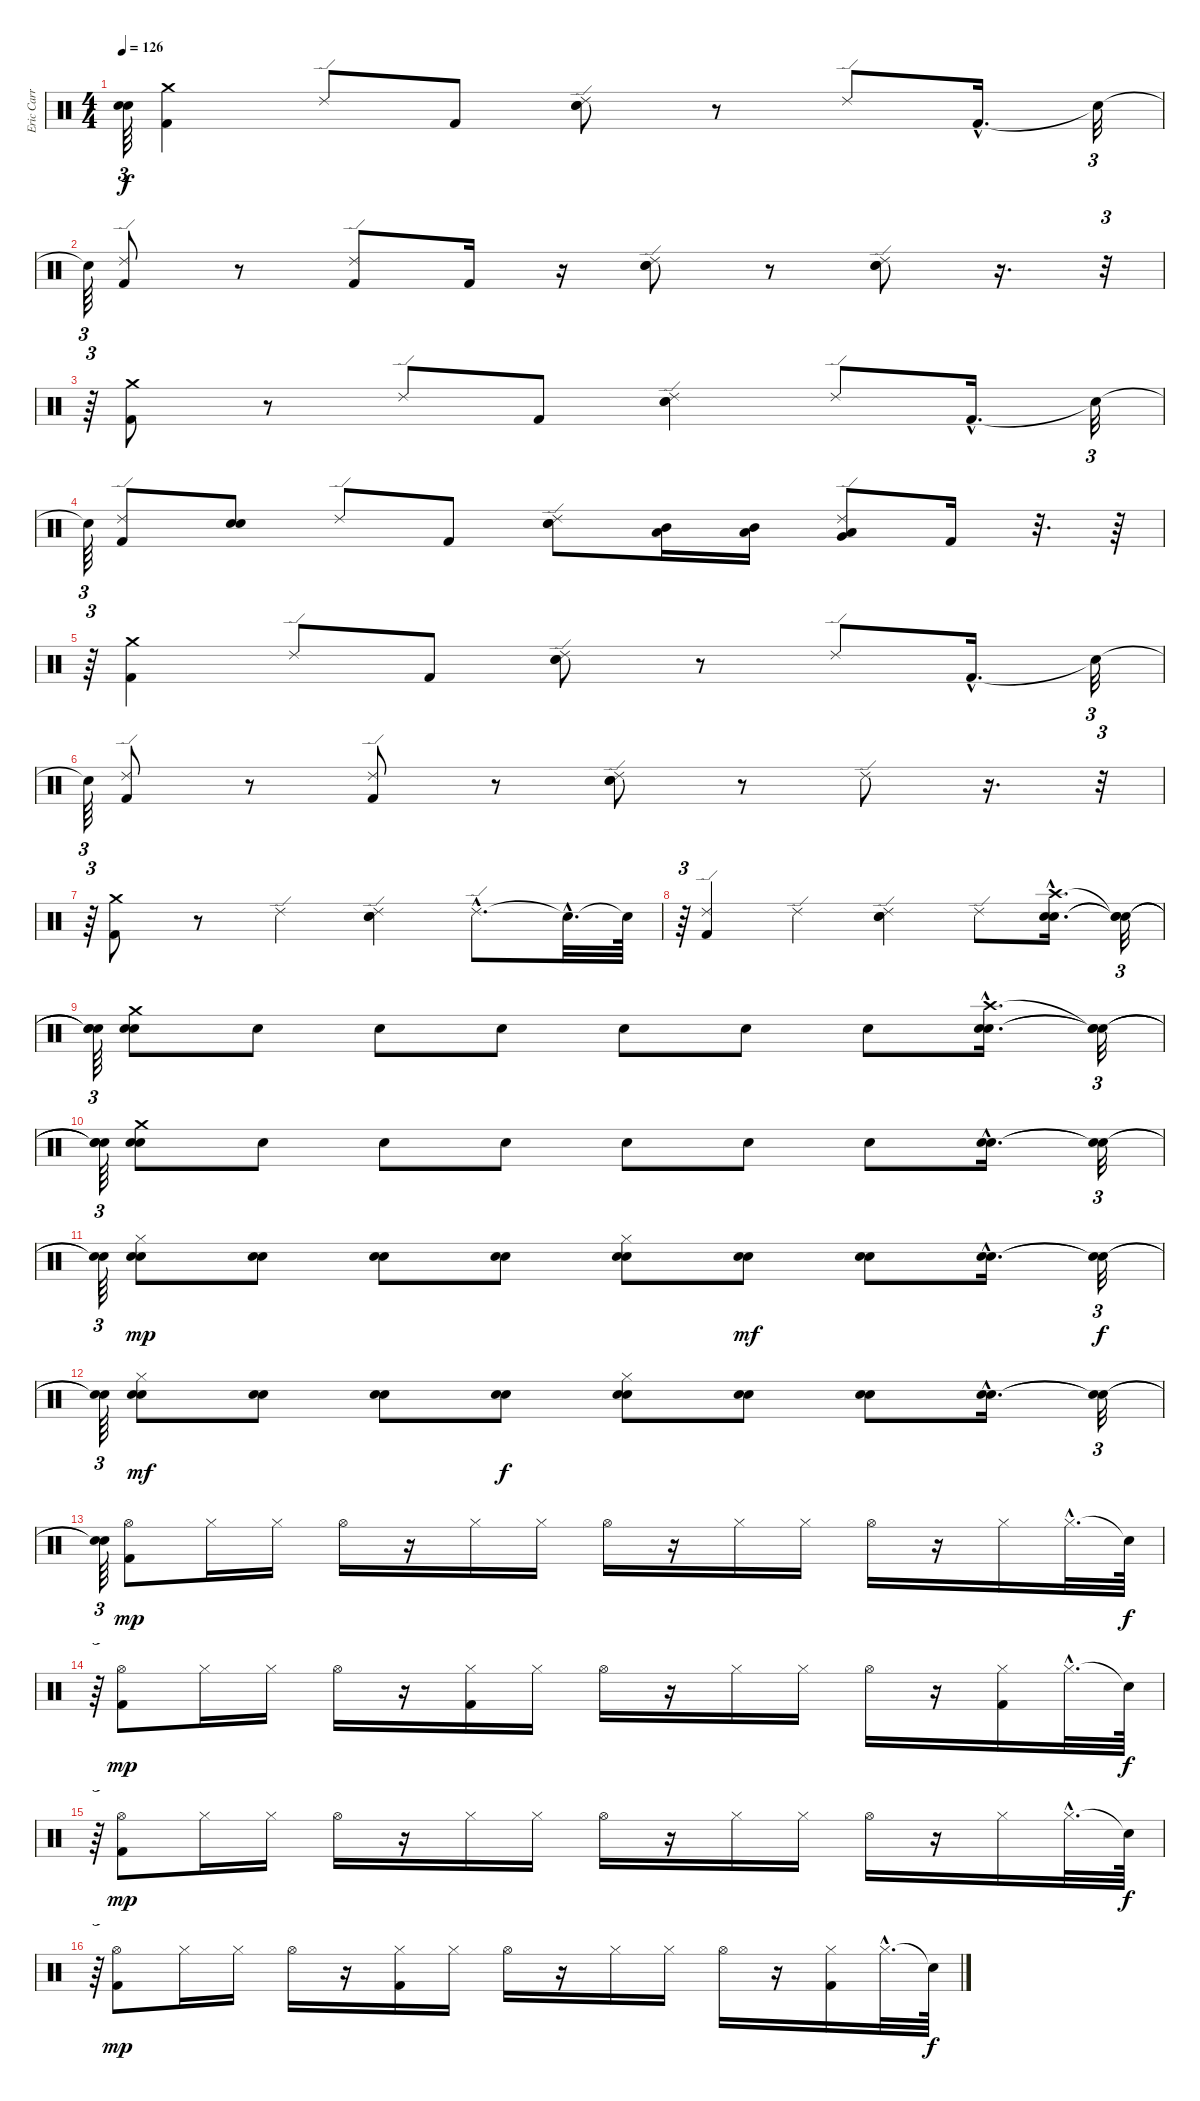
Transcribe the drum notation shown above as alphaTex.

\track ("Eric Carr" "Eric Carr") {instrument percussion}
\staff {score}
\articulation defaults
\ts (4 4)
\tempo 126
\clef neutral
\ks c
("Snare (hit)"{t} "Snare (hit)"{t}).64{tu (3 2) dy f} ("Crash medium (hit)" "Kick (hit) 2").4 "Ride (edge) 2".8 "Kick (hit) 2".8 ("Ride (edge) 2" "Snare (hit) 2" "Electric Snare (hit)").8 r.8 "Ride (edge) 2".8 "Kick (hit) 2"{hac}.16{d} "Snare (hit)"{t}.32{tu (3 2)} |
"Snare (hit)"{t}.64{tu (3 2)} ("Ride (edge) 2" "Kick (hit) 2").8 r.8 ("Ride (edge) 2" "Kick (hit) 2").8 "Kick (hit) 2".16 r.16 ("Ride (edge) 2" "Electric Snare (hit)" "Snare (hit) 2").8 r.8 ("Snare (hit) 2" "Electric Snare (hit)" "Ride (edge) 2").8 r.16{d} r.32{tu (3 2)} |
r.64{tu (3 2)} ("Crash medium (hit)" "Kick (hit) 2").8 r.8 "Ride (edge) 2".8 "Kick (hit) 2".8 ("Ride (edge) 2" "Electric Snare (hit)" "Snare (hit) 2").4 "Ride (edge) 2".8 "Kick (hit) 2"{hac}.16{d} "Snare (hit)"{t}.32{tu (3 2)} |
"Snare (hit)"{t}.64{tu (3 2)} ("Ride (edge) 2" "Kick (hit) 2").8 ("Snare (hit) 2" "Electric Snare (hit)").8 "Ride (edge) 2".8 "Kick (hit) 2".8 ("Snare (hit) 2" "Electric Snare (hit)" "Ride (edge) 2").8 ("Mid Tom (hit)" "Low Tom (hit)").16 ("Mid Tom (hit)" "Low Tom (hit)").16 ("Low Tom (hit)" "Very Low Tom (hit)" "Ride (edge) 2").8 "Kick (hit) 2".16 r.32{d} r.64 |
r.64{tu (3 2)} ("Crash medium (hit)" "Kick (hit) 2").4 "Ride (edge) 2".8 "Kick (hit) 2".8 ("Ride (edge) 2" "Snare (hit) 2" "Electric Snare (hit)").8 r.8 "Ride (edge) 2".8 "Kick (hit) 2"{hac}.16{d} "Snare (hit)"{t}.32{tu (3 2)} |
"Snare (hit)"{t}.64{tu (3 2)} ("Ride (edge) 2" "Kick (hit) 2").8 r.8 ("Ride (edge) 2" "Kick (hit) 2").8 r.8 ("Ride (edge) 2" "Electric Snare (hit)" "Snare (hit) 2").8 r.8 "Ride (edge) 2".8 r.16{d} r.32{tu (3 2)} |
r.64{tu (3 2)} ("Crash medium (hit)" "Kick (hit) 2").8 r.8 "Ride (edge) 2".4 ("Ride (edge) 2" "Electric Snare (hit)" "Snare (hit) 2").4 "Ride (edge) 2"{hac}.8{d} "Snare (hit)"{hac t}.32{d} "Snare (hit)"{t}.64 |
r.64{tu (3 2)} ("Ride (edge) 2" "Kick (hit) 2").4 "Ride (edge) 2".4 ("Ride (edge) 2" "Electric Snare (hit)" "Snare (hit) 2").4 "Ride (edge) 2".8 ("Crash high (hit)"{hac} "Snare (hit) 2"{hac} "Electric Snare (hit)"{hac}).16{d} ("Snare (hit)"{t} "Snare (hit)"{t} "Snare (hit)"{t}).32{tu (3 2)} |
("Snare (hit)"{t} "Snare (hit)"{t} "Snare (hit)"{t}).64{tu (3 2)} ("Snare (hit) 2" "Electric Snare (hit)" "Crash medium (hit)").8 "Snare (hit) 2".8 "Snare (hit) 2".8 "Snare (hit) 2".8 "Snare (hit) 2".8 "Snare (hit) 2".8 "Snare (hit) 2".8 ("Crash high (hit)"{hac} "Electric Snare (hit)"{hac} "Snare (hit) 2"{hac}).16{d} ("Snare (hit)"{t} "Snare (hit)"{t} "Snare (hit)"{t}).32{tu (3 2)} |
("Snare (hit)"{t} "Snare (hit)"{t} "Snare (hit)"{t}).64{tu (3 2)} ("Crash medium (hit)" "Electric Snare (hit)" "Snare (hit) 2").8 "Snare (hit) 2".8 "Snare (hit) 2".8 "Snare (hit) 2".8 "Snare (hit) 2".8 "Snare (hit) 2".8 "Snare (hit) 2".8 ("Electric Snare (hit)"{hac} "Snare (hit) 2"{hac}).16{d} ("Snare (hit)"{t} "Snare (hit)"{t}).32{tu (3 2)} |
("Snare (hit)"{t} "Snare (hit)"{t}).64{tu (3 2)} ("Hi-Hat (closed)" "Electric Snare (hit)" "Snare (hit) 2").8{dy mp} ("Electric Snare (hit)" "Snare (hit) 2").8 ("Electric Snare (hit)" "Snare (hit) 2").8 ("Electric Snare (hit)" "Snare (hit) 2").8 ("Hi-Hat (closed)" "Electric Snare (hit)" "Snare (hit) 2").8 ("Electric Snare (hit)" "Snare (hit) 2").8{dy mf} ("Electric Snare (hit)" "Snare (hit) 2").8 ("Electric Snare (hit)"{hac} "Snare (hit) 2"{hac}).16{d} ("Snare (hit)"{t} "Snare (hit)"{t}).32{tu (3 2) dy f} |
("Snare (hit)"{t} "Snare (hit)"{t}).64{tu (3 2)} ("Hi-Hat (closed)" "Electric Snare (hit)" "Snare (hit) 2").8{dy mf} ("Electric Snare (hit)" "Snare (hit) 2").8 ("Electric Snare (hit)" "Snare (hit) 2").8 ("Electric Snare (hit)" "Snare (hit) 2").8{dy f} ("Hi-Hat (closed)" "Electric Snare (hit)" "Snare (hit) 2").8 ("Electric Snare (hit)" "Snare (hit) 2").8 ("Electric Snare (hit)" "Snare (hit) 2").8 ("Electric Snare (hit)"{hac} "Snare (hit) 2"{hac}).16{d} ("Snare (hit)"{t} "Snare (hit)"{t}).32{tu (3 2)} |
("Snare (hit)"{t} "Snare (hit)"{t}).64{tu (3 2)} ("Kick (hit) 2" "Hi-Hat (open)").8{dy mp} "Hi-Hat (closed)".16 "Hi-Hat (closed)".16 "Hi-Hat (open)".16 r.16 "Hi-Hat (closed)".16 "Hi-Hat (closed)".16 "Hi-Hat (open)".16 r.16 "Hi-Hat (closed)".16 "Hi-Hat (closed)".16 "Hi-Hat (open)".16 r.16 "Hi-Hat (closed)".16 "Hi-Hat (closed)"{hac}.32{d} "Snare (hit)"{t}.64{dy f} |
r.64{tu (3 2)} ("Kick (hit) 2" "Hi-Hat (open)").8{dy mp} "Hi-Hat (closed)".16 "Hi-Hat (closed)".16 "Hi-Hat (open)".16 r.16 ("Kick (hit) 2" "Hi-Hat (closed)").16 "Hi-Hat (closed)".16 "Hi-Hat (open)".16 r.16 "Hi-Hat (closed)".16 "Hi-Hat (closed)".16 "Hi-Hat (open)".16 r.16 ("Kick (hit) 2" "Hi-Hat (closed)").16 "Hi-Hat (closed)"{hac}.32{d} "Snare (hit)"{t}.64{dy f} |
r.64{tu (3 2)} ("Kick (hit) 2" "Hi-Hat (open)").8{dy mp} "Hi-Hat (closed)".16 "Hi-Hat (closed)".16 "Hi-Hat (open)".16 r.16 "Hi-Hat (closed)".16 "Hi-Hat (closed)".16 "Hi-Hat (open)".16 r.16 "Hi-Hat (closed)".16 "Hi-Hat (closed)".16 "Hi-Hat (open)".16 r.16 "Hi-Hat (closed)".16 "Hi-Hat (closed)"{hac}.32{d} "Snare (hit)"{t}.64{dy f} |
r.64{tu (3 2)} ("Kick (hit) 2" "Hi-Hat (open)").8{dy mp} "Hi-Hat (closed)".16 "Hi-Hat (closed)".16 "Hi-Hat (open)".16 r.16 ("Kick (hit) 2" "Hi-Hat (closed)").16 "Hi-Hat (closed)".16 "Hi-Hat (open)".16 r.16 "Hi-Hat (closed)".16 "Hi-Hat (closed)".16 "Hi-Hat (open)".16 r.16 ("Kick (hit) 2" "Hi-Hat (closed)").16 "Hi-Hat (closed)"{hac}.32{d} "Snare (hit)"{t}.64{dy f}
